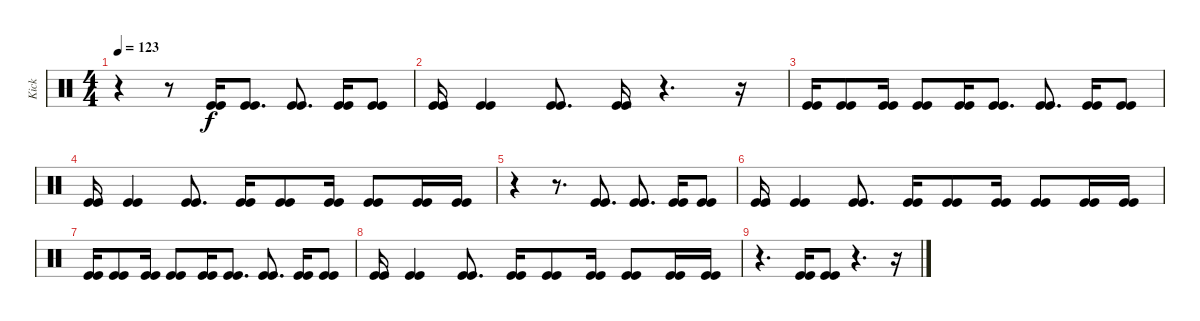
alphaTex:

\track ("Kick" "Kick") {instrument percussion}
\staff {score}
\articulation defaults
\ts (4 4)
\tempo 123
\clef neutral
\ks c
r.4{dy f} r.8 ("Kick (hit)" "Kick (hit)").16 ("Kick (hit)" "Kick (hit)").8{d} ("Kick (hit)" "Kick (hit)").8{d} ("Kick (hit)" "Kick (hit)").16 ("Kick (hit)" "Kick (hit)").8 |
("Kick (hit)" "Kick (hit)").16 ("Kick (hit)" "Kick (hit)").4 ("Kick (hit)" "Kick (hit)").8{d} ("Kick (hit)" "Kick (hit)").16 r.4{d} r.16 |
("Kick (hit)" "Kick (hit)").16 ("Kick (hit)" "Kick (hit)").8 ("Kick (hit)" "Kick (hit)").16 ("Kick (hit)" "Kick (hit)").8 ("Kick (hit)" "Kick (hit)").16 ("Kick (hit)" "Kick (hit)").8{d} ("Kick (hit)" "Kick (hit)").8{d} ("Kick (hit)" "Kick (hit)").16 ("Kick (hit)" "Kick (hit)").8 |
("Kick (hit)" "Kick (hit)").16 ("Kick (hit)" "Kick (hit)").4 ("Kick (hit)" "Kick (hit)").8{d} ("Kick (hit)" "Kick (hit)").16 ("Kick (hit)" "Kick (hit)").8 ("Kick (hit)" "Kick (hit)").16 ("Kick (hit)" "Kick (hit)").8 ("Kick (hit)" "Kick (hit)").16 ("Kick (hit)" "Kick (hit)").16 |
r.4 r.8{d} ("Kick (hit)" "Kick (hit)").8{d} ("Kick (hit)" "Kick (hit)").8{d} ("Kick (hit)" "Kick (hit)").16 ("Kick (hit)" "Kick (hit)").8 |
("Kick (hit)" "Kick (hit)").16 ("Kick (hit)" "Kick (hit)").4 ("Kick (hit)" "Kick (hit)").8{d} ("Kick (hit)" "Kick (hit)").16 ("Kick (hit)" "Kick (hit)").8 ("Kick (hit)" "Kick (hit)").16 ("Kick (hit)" "Kick (hit)").8 ("Kick (hit)" "Kick (hit)").16 ("Kick (hit)" "Kick (hit)").16 |
("Kick (hit)" "Kick (hit)").16 ("Kick (hit)" "Kick (hit)").8 ("Kick (hit)" "Kick (hit)").16 ("Kick (hit)" "Kick (hit)").8 ("Kick (hit)" "Kick (hit)").16 ("Kick (hit)" "Kick (hit)").8{d} ("Kick (hit)" "Kick (hit)").8{d} ("Kick (hit)" "Kick (hit)").16 ("Kick (hit)" "Kick (hit)").8 |
("Kick (hit)" "Kick (hit)").16 ("Kick (hit)" "Kick (hit)").4 ("Kick (hit)" "Kick (hit)").8{d} ("Kick (hit)" "Kick (hit)").16 ("Kick (hit)" "Kick (hit)").8 ("Kick (hit)" "Kick (hit)").16 ("Kick (hit)" "Kick (hit)").8 ("Kick (hit)" "Kick (hit)").16 ("Kick (hit)" "Kick (hit)").16 |
r.4{d} ("Kick (hit)" "Kick (hit)").16 ("Kick (hit)" "Kick (hit)").8 r.4{d} r.16
